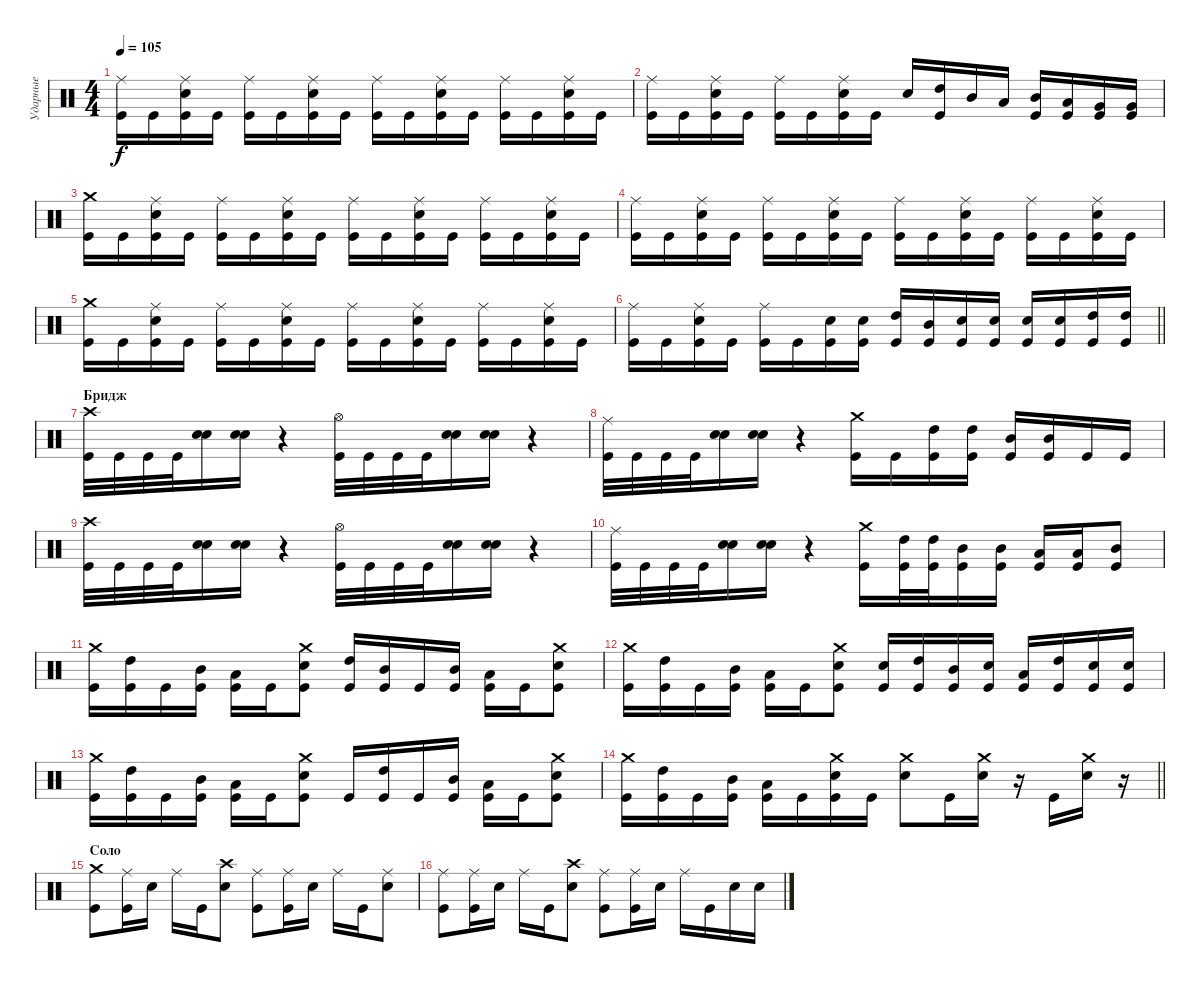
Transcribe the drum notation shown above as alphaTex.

\track ("Ударные" "Ударные") {instrument percussion}
\staff {score}
\articulation defaults
\ts (4 4)
\tempo 105
\clef neutral
\ks c
("Kick (hit)" "Ride (middle)").16{dy f} "Kick (hit)".16 ("Kick (hit)" "Snare (hit) 2" "Ride (middle)").16 "Kick (hit)".16 ("Kick (hit)" "Ride (middle)").16 "Kick (hit)".16 ("Kick (hit)" "Snare (hit) 2" "Ride (middle)").16 "Kick (hit)".16 ("Kick (hit)" "Ride (middle)").16 "Kick (hit)".16 ("Kick (hit)" "Snare (hit) 2" "Ride (middle)").16 "Kick (hit)".16 ("Kick (hit)" "Ride (middle)").16 "Kick (hit)".16 ("Kick (hit)" "Snare (hit) 2" "Ride (middle)").16 "Kick (hit)".16 |
("Kick (hit)" "Ride (middle)").16 "Kick (hit)".16 ("Kick (hit)" "Snare (hit) 2" "Ride (middle)").16 "Kick (hit)".16 ("Kick (hit)" "Ride (middle)").16 "Kick (hit)".16 ("Kick (hit)" "Snare (hit) 2" "Ride (middle)").16 "Kick (hit)".16 "Snare (hit) 2".16 ("Kick (hit)" "High Tom (hit)").16 "Mid Tom (hit)".16 "Low Tom (hit)".16 ("Kick (hit)" "Mid Tom (hit)").16 ("Kick (hit)" "Low Tom (hit)").16 ("Kick (hit)" "Very Low Tom (hit)").16 ("Kick (hit)" "Very Low Tom (hit)").16 |
("Kick (hit)" "Crash medium (hit)").16 "Kick (hit)".16 ("Kick (hit)" "Snare (hit) 2" "Ride (middle)").16 "Kick (hit)".16 ("Kick (hit)" "Ride (middle)").16 "Kick (hit)".16 ("Kick (hit)" "Snare (hit) 2" "Ride (middle)").16 "Kick (hit)".16 ("Kick (hit)" "Ride (middle)").16 "Kick (hit)".16 ("Kick (hit)" "Snare (hit) 2" "Ride (middle)").16 "Kick (hit)".16 ("Kick (hit)" "Ride (middle)").16 "Kick (hit)".16 ("Kick (hit)" "Snare (hit) 2" "Ride (middle)").16 "Kick (hit)".16 |
("Kick (hit)" "Ride (middle)").16 "Kick (hit)".16 ("Kick (hit)" "Snare (hit) 2" "Ride (middle)").16 "Kick (hit)".16 ("Kick (hit)" "Ride (middle)").16 "Kick (hit)".16 ("Kick (hit)" "Snare (hit) 2" "Ride (middle)").16 "Kick (hit)".16 ("Kick (hit)" "Ride (middle)").16 "Kick (hit)".16 ("Kick (hit)" "Snare (hit) 2" "Ride (middle)").16 "Kick (hit)".16 ("Kick (hit)" "Ride (middle)").16 "Kick (hit)".16 ("Kick (hit)" "Snare (hit) 2" "Ride (middle)").16 "Kick (hit)".16 |
("Kick (hit)" "Crash medium (hit)").16 "Kick (hit)".16 ("Kick (hit)" "Snare (hit) 2" "Ride (middle)").16 "Kick (hit)".16 ("Kick (hit)" "Ride (middle)").16 "Kick (hit)".16 ("Kick (hit)" "Snare (hit) 2" "Ride (middle)").16 "Kick (hit)".16 ("Kick (hit)" "Ride (middle)").16 "Kick (hit)".16 ("Kick (hit)" "Snare (hit) 2" "Ride (middle)").16 "Kick (hit)".16 ("Kick (hit)" "Ride (middle)").16 "Kick (hit)".16 ("Kick (hit)" "Snare (hit) 2" "Ride (middle)").16 "Kick (hit)".16 |
\barLineRight lightlight
("Kick (hit)" "Ride (middle)").16 "Kick (hit)".16 ("Kick (hit)" "Snare (hit) 2" "Ride (middle)").16 "Kick (hit)".16 ("Kick (hit)" "Ride (middle)").16 "Kick (hit)".16 ("Kick (hit)" "Snare (hit) 2").16 ("Kick (hit)" "Snare (hit) 2").16 ("Kick (hit)" "High Tom (hit)").16 ("Kick (hit)" "Mid Tom (hit)").16 ("Kick (hit)" "Snare (hit) 2").16 ("Kick (hit)" "Snare (hit) 2").16 ("Kick (hit)" "Snare (hit) 2").16 ("Kick (hit)" "Snare (hit) 2").16 ("Kick (hit)" "High Tom (hit)").16 ("Kick (hit)" "High Tom (hit)").16 |
\section ("" "Бридж")
("Kick (hit)" "Crash high (hit)").32 "Kick (hit)".32 "Kick (hit)".32 "Kick (hit)".32 ("Snare (hit) 2" "Snare (hit) 2").16{bd 60} ("Snare (hit) 2" "Snare (hit) 2").16{bd 60} r.4 ("Kick (hit)" "Hi-Hat (open)").32 "Kick (hit)".32 "Kick (hit)".32 "Kick (hit)".32 ("Snare (hit) 2" "Snare (hit) 2").16{bd 60} ("Snare (hit) 2" "Snare (hit) 2").16{bd 60} r.4 |
("Kick (hit)" "Ride (middle)").32 "Kick (hit)".32 "Kick (hit)".32 "Kick (hit)".32 ("Snare (hit) 2" "Snare (hit) 2").16{bd 60} ("Snare (hit) 2" "Snare (hit) 2").16{bd 60} r.4 ("Kick (hit)" "Crash medium (hit)").16 "Kick (hit)".16 ("Kick (hit)" "High Tom (hit)").16 ("Kick (hit)" "High Tom (hit)").16 ("Kick (hit)" "Mid Tom (hit)").16 ("Kick (hit)" "Mid Tom (hit)").16 "Kick (hit)".16 "Kick (hit)".16 |
("Kick (hit)" "Crash high (hit)").32 "Kick (hit)".32 "Kick (hit)".32 "Kick (hit)".32 ("Snare (hit) 2" "Snare (hit) 2").16{bd 60} ("Snare (hit) 2" "Snare (hit) 2").16{bd 60} r.4 ("Kick (hit)" "Hi-Hat (open)").32 "Kick (hit)".32 "Kick (hit)".32 "Kick (hit)".32 ("Snare (hit) 2" "Snare (hit) 2").16{bd 60} ("Snare (hit) 2" "Snare (hit) 2").16{bd 60} r.4 |
("Kick (hit)" "Ride (middle)").32 "Kick (hit)".32 "Kick (hit)".32 "Kick (hit)".32 ("Snare (hit) 2" "Snare (hit) 2").16{bd 60} ("Snare (hit) 2" "Snare (hit) 2").16{bd 60} r.4 ("Kick (hit)" "Crash medium (hit)").16 ("Kick (hit)" "High Tom (hit)").32 ("Kick (hit)" "High Tom (hit)").32 ("Kick (hit)" "Mid Tom (hit)").16 ("Kick (hit)" "Mid Tom (hit)").16 ("Kick (hit)" "Low Tom (hit)").16 ("Kick (hit)" "Low Tom (hit)").16 ("Kick (hit)" "Mid Tom (hit)").8 |
("Kick (hit)" "Crash medium (hit)").16 ("Kick (hit)" "High Tom (hit)").16 "Kick (hit)".16 ("Kick (hit)" "Mid Tom (hit)").16 ("Kick (hit)" "Low Tom (hit)").16 "Kick (hit)".16 ("Kick (hit)" "Snare (hit) 2" "Crash medium (hit)").8 ("Kick (hit)" "High Tom (hit)").16 ("Kick (hit)" "Mid Tom (hit)").16 "Kick (hit)".16 ("Kick (hit)" "Mid Tom (hit)").16 ("Kick (hit)" "Low Tom (hit)").16 "Kick (hit)".16 ("Kick (hit)" "Snare (hit) 2" "Crash medium (hit)").8 |
("Kick (hit)" "Crash medium (hit)").16 ("Kick (hit)" "High Tom (hit)").16 "Kick (hit)".16 ("Kick (hit)" "Mid Tom (hit)").16 ("Kick (hit)" "Low Tom (hit)").16 "Kick (hit)".16 ("Kick (hit)" "Snare (hit) 2" "Crash medium (hit)").8 ("Kick (hit)" "Snare (hit) 2").16 ("Kick (hit)" "High Tom (hit)").16 ("Kick (hit)" "Mid Tom (hit)").16 ("Kick (hit)" "Snare (hit) 2").16 ("Kick (hit)" "Low Tom (hit)").16 ("Kick (hit)" "High Tom (hit)").16 ("Kick (hit)" "Snare (hit) 2").16 ("Kick (hit)" "Snare (hit) 2").16 |
("Kick (hit)" "Crash medium (hit)").16 ("Kick (hit)" "High Tom (hit)").16 "Kick (hit)".16 ("Kick (hit)" "Mid Tom (hit)").16 ("Kick (hit)" "Low Tom (hit)").16 "Kick (hit)".16 ("Kick (hit)" "Snare (hit) 2" "Crash medium (hit)").8 "Kick (hit)".16 ("Kick (hit)" "High Tom (hit)").16 "Kick (hit)".16 ("Kick (hit)" "Mid Tom (hit)").16 ("Kick (hit)" "Low Tom (hit)").16 "Kick (hit)".16 ("Kick (hit)" "Snare (hit) 2" "Crash medium (hit)").8 |
\barLineRight lightlight
("Kick (hit)" "Crash medium (hit)").16 ("Kick (hit)" "High Tom (hit)").16 "Kick (hit)".16 ("Kick (hit)" "Mid Tom (hit)").16 ("Kick (hit)" "Low Tom (hit)").16 "Kick (hit)".16 ("Kick (hit)" "Snare (hit) 2" "Crash medium (hit)").16 "Kick (hit)".16 ("Snare (hit) 2" "Crash medium (hit)").8 "Kick (hit)".16 ("Snare (hit) 2" "Crash medium (hit)").16 r.16 "Kick (hit)".16 ("Snare (hit) 2" "Crash medium (hit)").16 r.16 |
\section ("" "Соло")
("Kick (hit)" "Crash medium (hit)").8 ("Kick (hit)" "Ride (middle)").16 "Snare (hit) 2".16 "Ride (middle)".16 "Kick (hit)".16 ("Snare (hit) 2" "Crash high (hit)").8 ("Kick (hit)" "Ride (middle)").8 ("Kick (hit)" "Ride (middle)").16 "Snare (hit) 2".16 "Ride (middle)".16 "Kick (hit)".16 ("Snare (hit) 2" "Ride (middle)").8 |
("Kick (hit)" "Ride (middle)").8 ("Kick (hit)" "Ride (middle)").16 "Snare (hit) 2".16 "Ride (middle)".16 "Kick (hit)".16 ("Snare (hit) 2" "Crash high (hit)").8 ("Kick (hit)" "Ride (middle)").8 ("Kick (hit)" "Ride (middle)").16 "Snare (hit) 2".16 "Ride (middle)".16 "Kick (hit)".16 "Snare (hit) 2".16 "Snare (hit) 2".16
